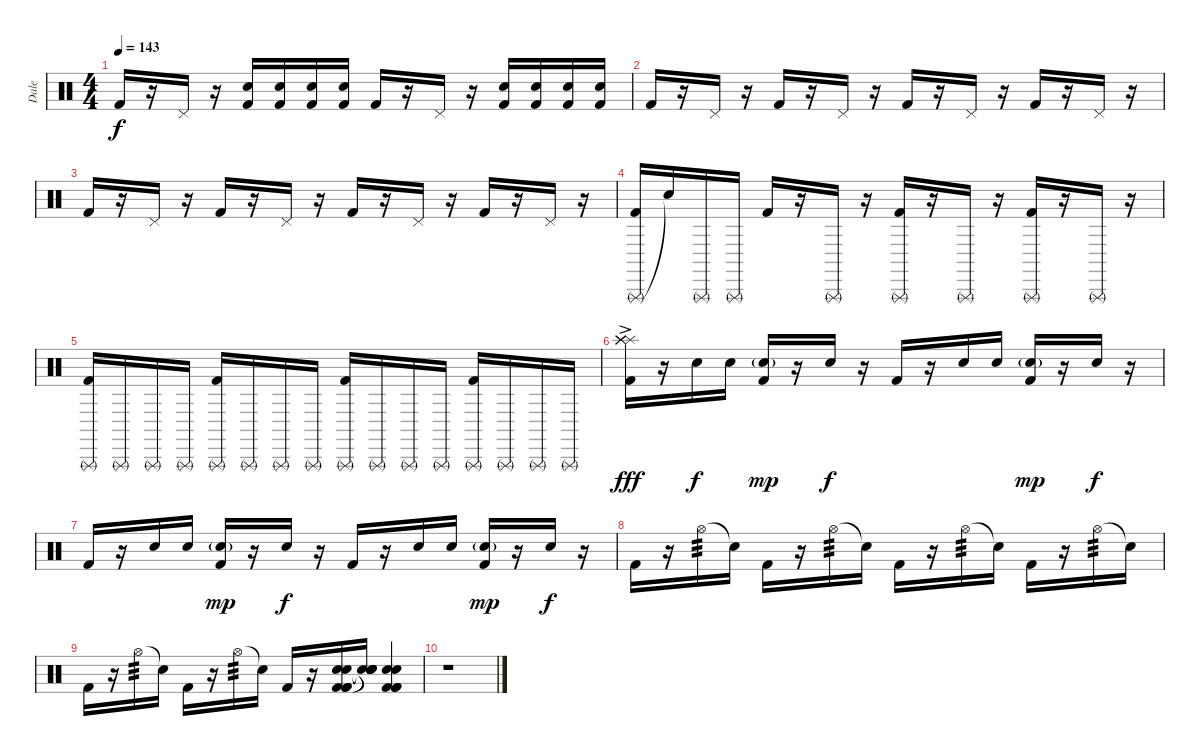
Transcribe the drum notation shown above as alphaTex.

\track ("Dale" "Dale") {instrument percussion}
\staff {score}
\articulation defaults
\ts (4 4)
\tempo 143
\clef neutral
\ks c "Kick (hit) 2".16{dy f}
r.16 "Pedal Hi-Hat (hit)".16 r.16 ("Kick (hit) 2" "Snare (hit) 2").16 ("Kick (hit) 2" "Snare (hit) 2").16 ("Kick (hit) 2" "Snare (hit) 2").16 ("Kick (hit) 2" "Snare (hit) 2").16 "Kick (hit) 2".16 r.16 "Pedal Hi-Hat (hit)".16 r.16 ("Kick (hit) 2" "Snare (hit) 2").16 ("Kick (hit) 2" "Snare (hit) 2").16 ("Kick (hit) 2" "Snare (hit) 2").16 ("Kick (hit) 2" "Snare (hit) 2").16 |
"Kick (hit) 2".16 r.16 "Pedal Hi-Hat (hit)".16 r.16 "Kick (hit) 2".16 r.16 "Pedal Hi-Hat (hit)".16 r.16 "Kick (hit) 2".16 r.16 "Pedal Hi-Hat (hit)".16 r.16 "Kick (hit) 2".16 r.16 "Pedal Hi-Hat (hit)".16 r.16 |
"Kick (hit) 2".16 r.16 "Pedal Hi-Hat (hit)".16 r.16 "Kick (hit) 2".16 r.16 "Pedal Hi-Hat (hit)".16 r.16 "Kick (hit) 2".16 r.16 "Pedal Hi-Hat (hit)".16 r.16 "Kick (hit) 2".16 r.16 "Pedal Hi-Hat (hit)".16 r.16 |
("Triangle (rnute)" "Kick (hit) 2").16 "Snare (hit)"{t}.16 "Triangle (rnute)".16 "Triangle (rnute)".16 "Kick (hit) 2".16 r.16 "Triangle (rnute)".16 r.16 ("Triangle (rnute)" "Kick (hit) 2").16 r.16 "Triangle (rnute)".16 r.16 ("Triangle (rnute)" "Kick (hit) 2").16 r.16 "Triangle (rnute)".16 r.16 |
("Triangle (rnute)" "Kick (hit) 2").16 "Triangle (rnute)".16 "Triangle (rnute)".16 "Triangle (rnute)".16 ("Triangle (rnute)" "Kick (hit) 2").16 "Triangle (rnute)".16 "Triangle (rnute)".16 "Triangle (rnute)".16 ("Triangle (rnute)" "Kick (hit) 2").16 "Triangle (rnute)".16 "Triangle (rnute)".16 "Triangle (rnute)".16 ("Triangle (rnute)" "Kick (hit) 2").16 "Triangle (rnute)".16 "Triangle (rnute)".16 "Triangle (rnute)".16 |
("Kick (hit) 2" "Splash (hit)"{ac} "Splash (hit)"{ac} "Splash (hit)"{ac} "Splash (hit)"{ac} "Splash (hit)"{ac}).16{dy fff} r.16 "Snare (hit) 2".16{dy f} "Snare (hit) 2".16 ("Kick (hit) 2" "Snare (hit) 2"{g}).16{dy mp} r.16 "Snare (hit) 2".16{dy f} r.16 "Kick (hit) 2".16 r.16 "Snare (hit) 2".16 "Snare (hit) 2".16 ("Kick (hit) 2" "Snare (hit) 2"{g}).16{dy mp} r.16 "Snare (hit) 2".16{dy f} r.16 |
"Kick (hit) 2".16 r.16 "Snare (hit) 2".16 "Snare (hit) 2".16 ("Kick (hit) 2" "Snare (hit) 2"{g}).16{dy mp} r.16 "Snare (hit) 2".16{dy f} r.16 "Kick (hit) 2".16 r.16 "Snare (hit) 2".16 "Snare (hit) 2".16 ("Kick (hit) 2" "Snare (hit) 2"{g}).16{dy mp} r.16 "Snare (hit) 2".16{dy f} r.16 |
"Kick (hit) 2".16 r.16 "Hi-Hat (open)".16{tp 3} "Snare (hit)"{t}.16 "Kick (hit) 2".16 r.16 "Hi-Hat (open)".16{tp 3} "Snare (hit)"{t}.16 "Kick (hit) 2".16 r.16 "Hi-Hat (open)".16{tp 3} "Snare (hit)"{t}.16 "Kick (hit) 2".16 r.16 "Hi-Hat (open)".16{tp 3} "Snare (hit)"{t}.16 |
"Kick (hit) 2".16 r.16 "Hi-Hat (open)".16{tp 3} "Snare (hit)"{t}.16 "Kick (hit) 2".16 r.16 "Hi-Hat (open)".16{tp 3} "Snare (hit)"{t}.16 "Kick (hit) 2".16 r.16 ("Kick (hit) 2" "Kick (hit) 2" "Kick (hit) 2" "Snare (hit) 2" "Snare (hit) 2").16 ("Snare (hit)"{t} "Snare (hit)"{t} "Snare (hit)"{t} "Snare (hit)"{t} "Snare (hit)"{t}).16 ("Kick (hit) 2" "Kick (hit) 2" "Kick (hit) 2" "Snare (hit) 2" "Snare (hit) 2").4 |
r.1
